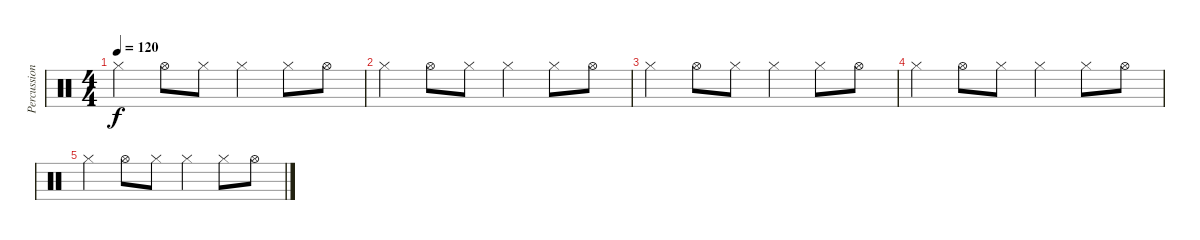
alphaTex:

\track ("Percussion" "Percussion") {instrument percussion}
\staff {score}
\articulation defaults
\ts (4 4)
\tempo 120
\clef neutral
\ks aminor "Hi-Hat (closed)".4{dy f} "Hi-Hat (open)".8 "Hi-Hat (closed)".8 "Hi-Hat (closed)".4 "Hi-Hat (closed)".8 "Hi-Hat (open)".8
|
"Hi-Hat (closed)".4 "Hi-Hat (open)".8 "Hi-Hat (closed)".8 "Hi-Hat (closed)".4 "Hi-Hat (closed)".8 "Hi-Hat (open)".8 |
"Hi-Hat (closed)".4 "Hi-Hat (open)".8 "Hi-Hat (closed)".8 "Hi-Hat (closed)".4 "Hi-Hat (closed)".8 "Hi-Hat (open)".8 |
"Hi-Hat (closed)".4 "Hi-Hat (open)".8 "Hi-Hat (closed)".8 "Hi-Hat (closed)".4 "Hi-Hat (closed)".8 "Hi-Hat (open)".8 |
"Hi-Hat (closed)".4 "Hi-Hat (open)".8 "Hi-Hat (closed)".8 "Hi-Hat (closed)".4 "Hi-Hat (closed)".8 "Hi-Hat (open)".8
